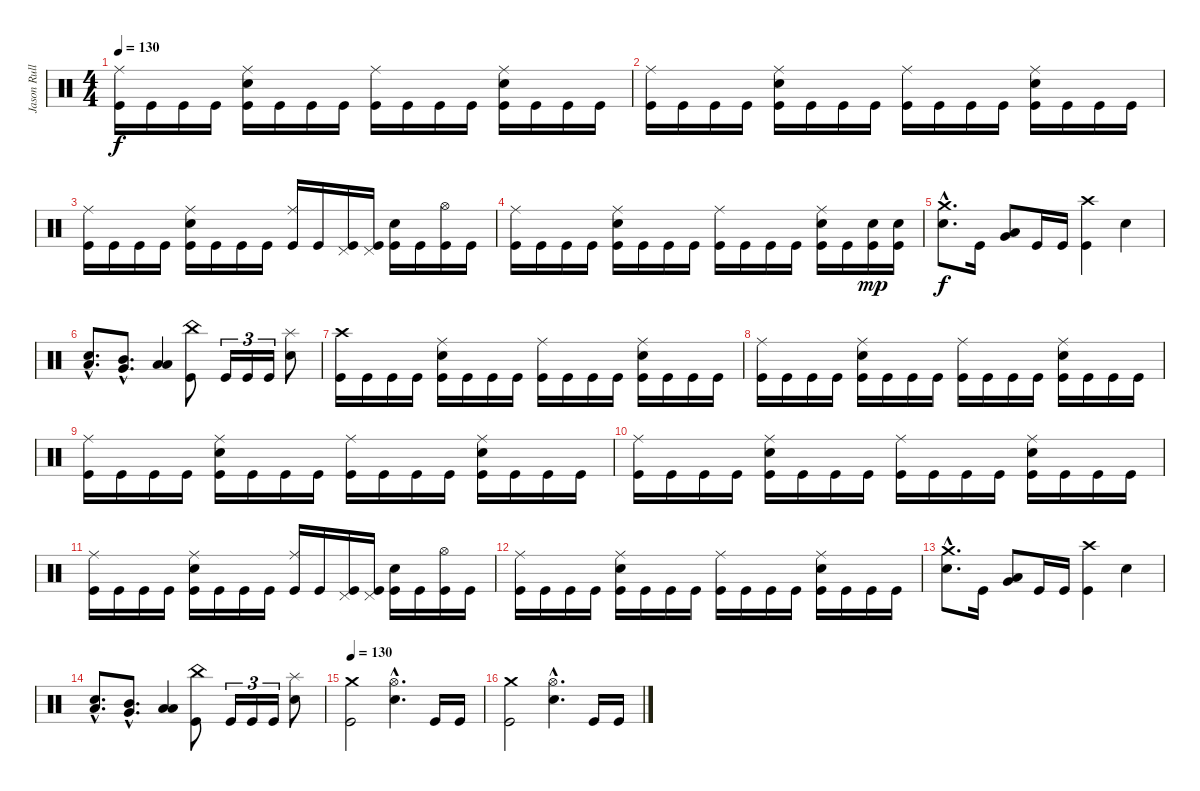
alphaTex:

\track ("Jason Rullo - Batterie" "Jason Rull") {instrument percussion}
\staff {score}
\articulation defaults
\ts (4 4)
\tempo 130
\clef neutral
\ks c
("Ride (middle)" "Kick (hit)").16{dy f} "Kick (hit)".16 "Kick (hit)".16 "Kick (hit)".16 ("Ride (middle)" "Snare (hit) 2" "Kick (hit)").16 "Kick (hit)".16 "Kick (hit)".16 "Kick (hit)".16 ("Ride (middle)" "Kick (hit)").16 "Kick (hit)".16 "Kick (hit)".16 "Kick (hit)".16 ("Ride (middle)" "Snare (hit) 2" "Kick (hit)").16 "Kick (hit)".16 "Kick (hit)".16 "Kick (hit)".16 |
("Ride (middle)" "Kick (hit)").16 "Kick (hit)".16 "Kick (hit)".16 "Kick (hit)".16 ("Ride (middle)" "Snare (hit) 2" "Kick (hit)").16 "Kick (hit)".16 "Kick (hit)".16 "Kick (hit)".16 ("Ride (middle)" "Kick (hit)").16 "Kick (hit)".16 "Kick (hit)".16 "Kick (hit)".16 ("Ride (middle)" "Snare (hit) 2" "Kick (hit)").16 "Kick (hit)".16 "Kick (hit)".16 "Kick (hit)".16 |
("Ride (middle)" "Kick (hit)").16 "Kick (hit)".16 "Kick (hit)".16 "Kick (hit)".16 ("Ride (middle)" "Snare (hit) 2" "Kick (hit)").16 "Kick (hit)".16 "Kick (hit)".16 "Kick (hit)".16 ("Ride (middle)" "Kick (hit)").16 "Kick (hit)".16 ("Pedal Hi-Hat (hit)" "Kick (hit)").16 ("Pedal Hi-Hat (hit)" "Kick (hit)").16 ("Snare (hit) 2" "Kick (hit)").16 "Kick (hit)".16 ("Hi-Hat (open)" "Kick (hit)").16 "Kick (hit)".16 |
("Ride (middle)" "Kick (hit)").16 "Kick (hit)".16 "Kick (hit)".16 "Kick (hit)".16 ("Ride (middle)" "Snare (hit) 2" "Kick (hit)").16 "Kick (hit)".16 "Kick (hit)".16 "Kick (hit)".16 ("Ride (middle)" "Kick (hit)").16 "Kick (hit)".16 "Kick (hit)".16 "Kick (hit)".16 ("Ride (middle)" "Snare (hit) 2" "Kick (hit)").16 "Kick (hit)".16 ("Snare (hit) 2" "Kick (hit)").16{dy mp} ("Snare (hit) 2" "Kick (hit)").16 |
("Crash medium (hit)"{hac} "Snare (hit) 2"{hac}).8{d dy f} "Kick (hit)".16 ("Very Low Tom (hit)" "Low Tom (hit)").8 "Kick (hit)".16 "Kick (hit)".16 ("Crash high (hit)" "Kick (hit)").4 "Snare (hit) 2".4 |
("Low Tom (hit)"{hac} "Snare (hit) 2"{hac}).8{d} ("Very Low Tom (hit)"{hac} "Mid Tom (hit)"{hac}).8{d} ("Low Floor Tom (hit)" "Low Tom (hit)").4 ("China (hit)" "Kick (hit)").8 "Kick (hit)".16{tu (3 2)} "Kick (hit)".16{tu (3 2)} "Kick (hit)".16{tu (3 2)} ("Splash (hit)" "Snare (hit) 2").8 |
("Crash high (hit)" "Kick (hit)").16 "Kick (hit)".16 "Kick (hit)".16 "Kick (hit)".16 ("Ride (middle)" "Snare (hit) 2" "Kick (hit)").16 "Kick (hit)".16 "Kick (hit)".16 "Kick (hit)".16 ("Ride (middle)" "Kick (hit)").16 "Kick (hit)".16 "Kick (hit)".16 "Kick (hit)".16 ("Ride (middle)" "Snare (hit) 2" "Kick (hit)").16 "Kick (hit)".16 "Kick (hit)".16 "Kick (hit)".16 |
("Ride (middle)" "Kick (hit)").16 "Kick (hit)".16 "Kick (hit)".16 "Kick (hit)".16 ("Ride (middle)" "Snare (hit) 2" "Kick (hit)").16 "Kick (hit)".16 "Kick (hit)".16 "Kick (hit)".16 ("Ride (middle)" "Kick (hit)").16 "Kick (hit)".16 "Kick (hit)".16 "Kick (hit)".16 ("Ride (middle)" "Snare (hit) 2" "Kick (hit)").16 "Kick (hit)".16 "Kick (hit)".16 "Kick (hit)".16 |
("Ride (middle)" "Kick (hit)").16 "Kick (hit)".16 "Kick (hit)".16 "Kick (hit)".16 ("Ride (middle)" "Snare (hit) 2" "Kick (hit)").16 "Kick (hit)".16 "Kick (hit)".16 "Kick (hit)".16 ("Ride (middle)" "Kick (hit)").16 "Kick (hit)".16 "Kick (hit)".16 "Kick (hit)".16 ("Ride (middle)" "Snare (hit) 2" "Kick (hit)").16 "Kick (hit)".16 "Kick (hit)".16 "Kick (hit)".16 |
("Ride (middle)" "Kick (hit)").16 "Kick (hit)".16 "Kick (hit)".16 "Kick (hit)".16 ("Ride (middle)" "Snare (hit) 2" "Kick (hit)").16 "Kick (hit)".16 "Kick (hit)".16 "Kick (hit)".16 ("Ride (middle)" "Kick (hit)").16 "Kick (hit)".16 "Kick (hit)".16 "Kick (hit)".16 ("Ride (middle)" "Snare (hit) 2" "Kick (hit)").16 "Kick (hit)".16 "Kick (hit)".16 "Kick (hit)".16 |
("Ride (middle)" "Kick (hit)").16 "Kick (hit)".16 "Kick (hit)".16 "Kick (hit)".16 ("Ride (middle)" "Snare (hit) 2" "Kick (hit)").16 "Kick (hit)".16 "Kick (hit)".16 "Kick (hit)".16 ("Ride (middle)" "Kick (hit)").16 "Kick (hit)".16 ("Pedal Hi-Hat (hit)" "Kick (hit)").16 ("Pedal Hi-Hat (hit)" "Kick (hit)").16 ("Snare (hit) 2" "Kick (hit)").16 "Kick (hit)".16 ("Hi-Hat (open)" "Kick (hit)").16 "Kick (hit)".16 |
("Ride (middle)" "Kick (hit)").16 "Kick (hit)".16 "Kick (hit)".16 "Kick (hit)".16 ("Ride (middle)" "Snare (hit) 2" "Kick (hit)").16 "Kick (hit)".16 "Kick (hit)".16 "Kick (hit)".16 ("Ride (middle)" "Kick (hit)").16 "Kick (hit)".16 "Kick (hit)".16 "Kick (hit)".16 ("Ride (middle)" "Snare (hit) 2" "Kick (hit)").16 "Kick (hit)".16 "Kick (hit)".16 "Kick (hit)".16 |
("Crash medium (hit)"{hac} "Snare (hit) 2"{hac}).8{d} "Kick (hit)".16 ("Very Low Tom (hit)" "Low Tom (hit)").8 "Kick (hit)".16 "Kick (hit)".16 ("Crash high (hit)" "Kick (hit)").4 "Snare (hit) 2".4 |
("Low Tom (hit)"{hac} "Snare (hit) 2"{hac}).8{d} ("Very Low Tom (hit)"{hac} "Mid Tom (hit)"{hac}).8{d} ("Low Floor Tom (hit)" "Low Tom (hit)").4 ("China (hit)" "Kick (hit)").8 "Kick (hit)".16{tu (3 2)} "Kick (hit)".16{tu (3 2)} "Kick (hit)".16{tu (3 2)} ("Splash (hit)" "Snare (hit) 2").8 |
\tempo 130
("Crash medium (hit)" "Kick (hit)").2 ("Hi-Hat (open)"{hac} "Snare (hit) 2"{hac}).4{d} "Kick (hit)".16 "Kick (hit)".16 |
("Crash medium (hit)" "Kick (hit)").2 ("Hi-Hat (open)"{hac} "Snare (hit) 2"{hac}).4{d} "Kick (hit)".16 "Kick (hit)".16
